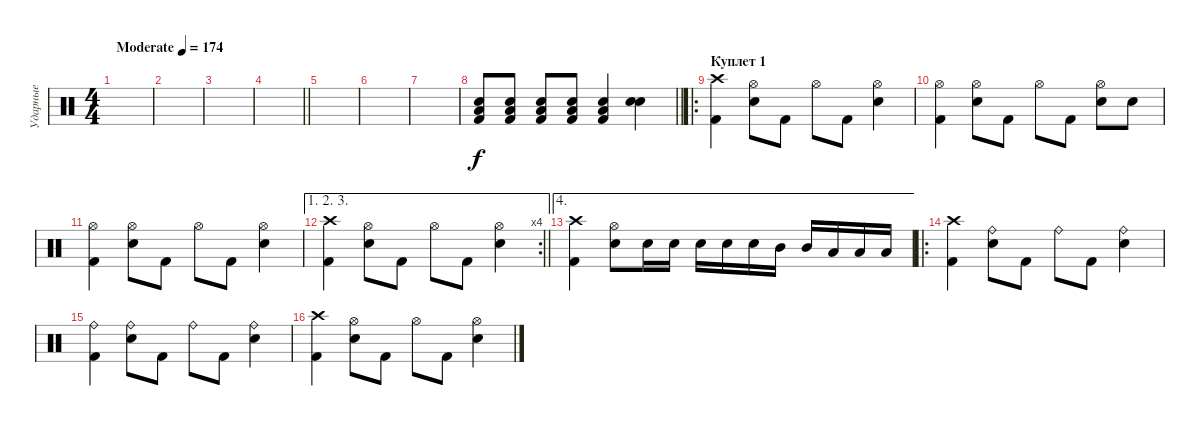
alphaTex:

\track ("Ударные" "Ударные") {instrument percussion}
\staff {score}
\articulation defaults
\ts (4 4)
\tempo (174 "Moderate")
\clef neutral
\ks c
|
|
|
\barLineRight lightlight
|
|
|
|
\barLineRight lightlight
("Low Tom (hit)" "Electric Snare (hit)" "Kick (hit) 2").8 ("Low Tom (hit)" "Electric Snare (hit)" "Kick (hit) 2").8 ("Low Tom (hit)" "Electric Snare (hit)" "Kick (hit) 2").8 ("Low Tom (hit)" "Electric Snare (hit)" "Kick (hit) 2").8 ("Low Tom (hit)" "Electric Snare (hit)" "Kick (hit) 2").4 ("Electric Snare (hit)" "Electric Snare (hit)").4 |
\ro
\section ("" "Куплет 1")
("Crash high (hit)" "Kick (hit) 2").4 ("Hi-Hat (open)" "Electric Snare (hit)").8 "Kick (hit) 2".8 "Hi-Hat (open)".8 "Kick (hit) 2".8 ("Hi-Hat (open)" "Electric Snare (hit)").4 |
("Hi-Hat (open)" "Kick (hit) 2").4 ("Hi-Hat (open)" "Electric Snare (hit)").8 "Kick (hit) 2".8 "Hi-Hat (open)".8 "Kick (hit) 2".8 ("Hi-Hat (open)" "Electric Snare (hit)").8 "Electric Snare (hit)".8 |
("Hi-Hat (open)" "Kick (hit) 2").4 ("Hi-Hat (open)" "Electric Snare (hit)").8 "Kick (hit) 2".8 "Hi-Hat (open)".8 "Kick (hit) 2".8 ("Hi-Hat (open)" "Electric Snare (hit)").4 |
\ae (1 2 3)
\rc 4
\barLineRight lightlight
("Crash high (hit)" "Kick (hit) 2").4 ("Hi-Hat (open)" "Electric Snare (hit)").8 "Kick (hit) 2".8 "Hi-Hat (open)".8 "Kick (hit) 2".8 ("Hi-Hat (open)" "Electric Snare (hit)").4 |
\ae 4
("Crash high (hit)" "Kick (hit) 2").4 ("Hi-Hat (open)" "Electric Snare (hit)").8 "Electric Snare (hit)".16 "Electric Snare (hit)".16 "Electric Snare (hit)".16 "Electric Snare (hit)".16 "Electric Snare (hit)".16 "Mid Tom (hit)".16 "Mid Tom (hit)".16 "Low Tom (hit)".16 "Low Tom (hit)".16 "Low Tom (hit)".16 |
\ro
("Crash high (hit)" "Kick (hit) 2").4 ("Ride (bell)" "Electric Snare (hit)").8 "Kick (hit) 2".8 "Ride (bell)".8 "Kick (hit) 2".8 ("Ride (bell)" "Electric Snare (hit)").4 |
("Ride (bell)" "Kick (hit) 2").4 ("Ride (bell)" "Electric Snare (hit)").8 "Kick (hit) 2".8 "Ride (bell)".8 "Kick (hit) 2".8 ("Ride (bell)" "Electric Snare (hit)").4 |
("Crash high (hit)" "Kick (hit) 2").4 ("Hi-Hat (open)" "Electric Snare (hit)").8 "Kick (hit) 2".8 "Hi-Hat (open)".8 "Kick (hit) 2".8 ("Hi-Hat (open)" "Electric Snare (hit)").4
